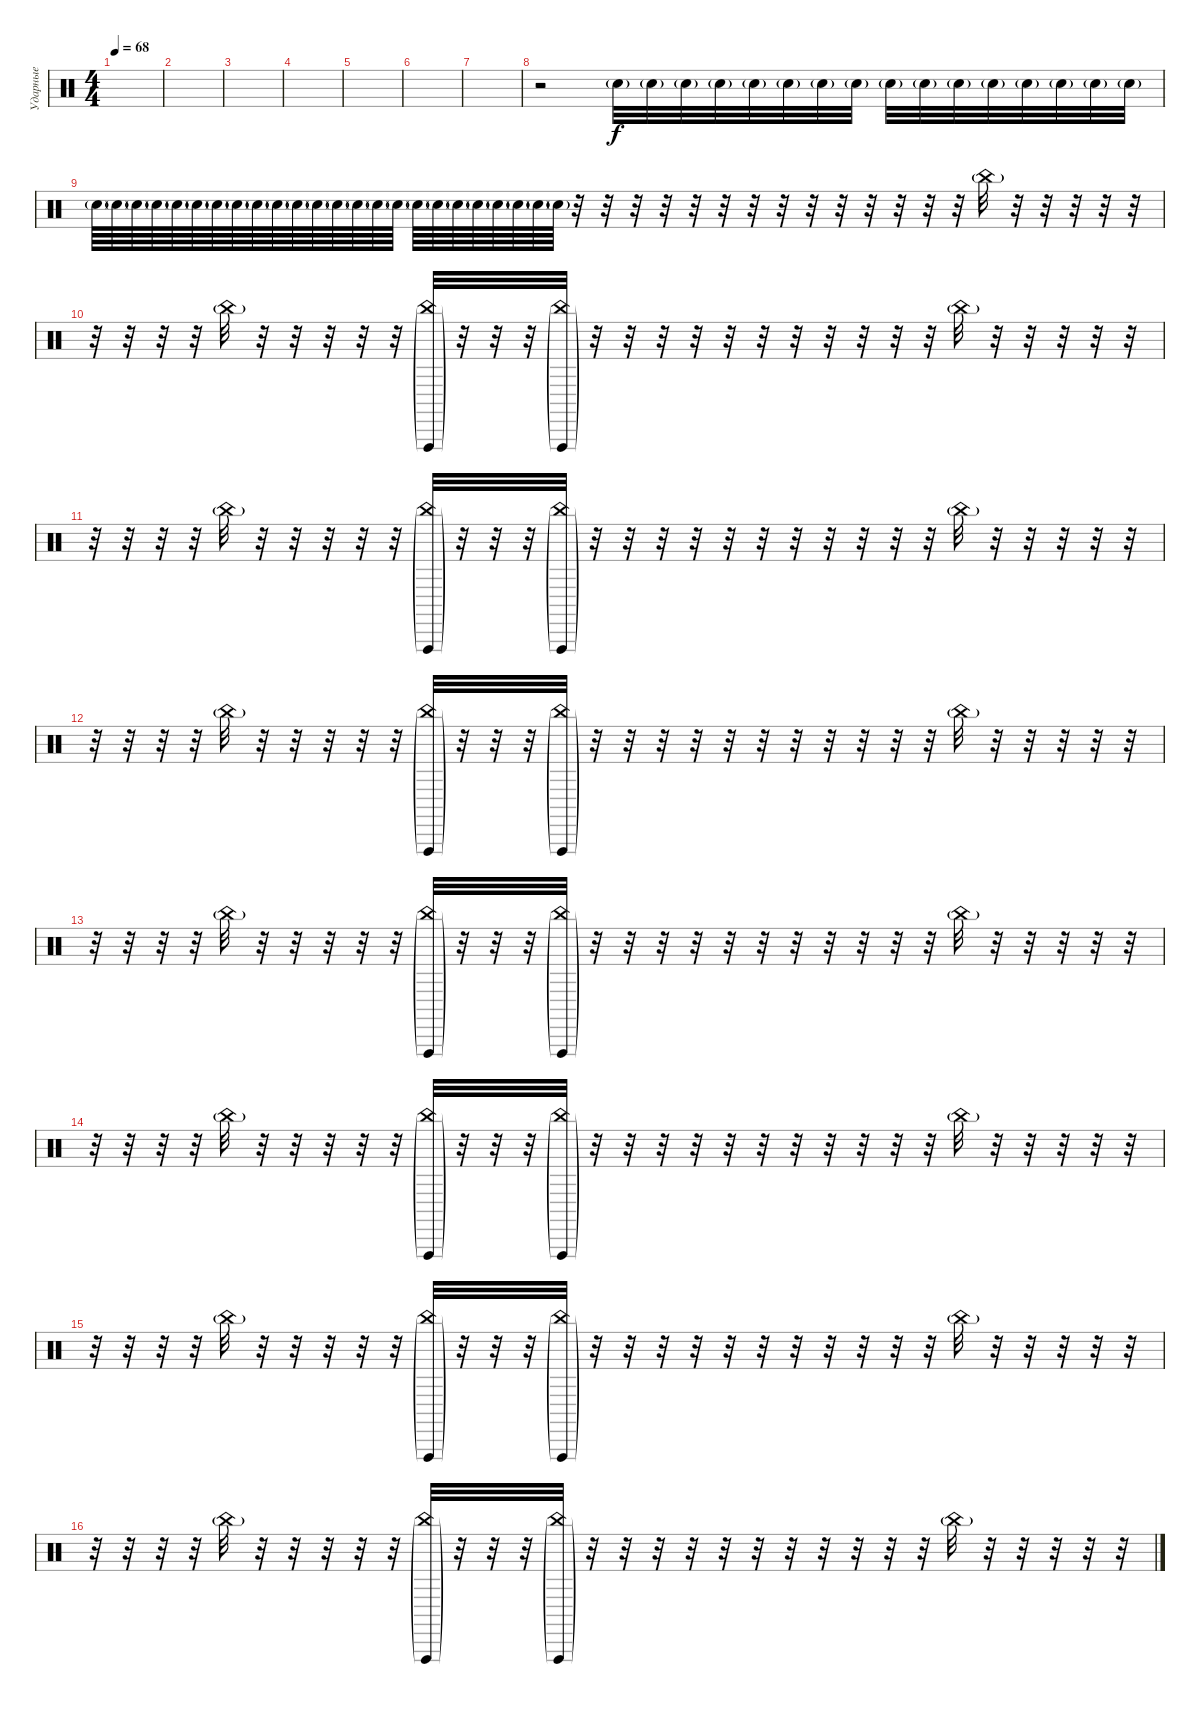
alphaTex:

\track ("Ударные" "Ударные") {instrument percussion}
\staff {score}
\articulation defaults
\ts (4 4)
\tempo 68
\clef neutral
\ks c
|
|
|
|
|
|
|
r.2 "Snare (hit) 2"{g}.32 "Snare (hit) 2"{g}.32 "Snare (hit) 2"{g}.32 "Snare (hit) 2"{g}.32 "Snare (hit) 2"{g}.32 "Snare (hit) 2"{g}.32 "Snare (hit) 2"{g}.32 "Snare (hit) 2"{g}.32 "Snare (hit) 2"{g}.32 "Snare (hit) 2"{g}.32 "Snare (hit) 2"{g}.32 "Snare (hit) 2"{g}.32 "Snare (hit) 2"{g}.32 "Snare (hit) 2"{g}.32 "Snare (hit) 2"{g}.32 "Snare (hit) 2"{g}.32 |
"Snare (hit) 2"{g}.64 "Snare (hit) 2"{g}.64 "Snare (hit) 2"{g}.64 "Snare (hit) 2"{g}.64 "Snare (hit) 2"{g}.64 "Snare (hit) 2"{g}.64 "Snare (hit) 2"{g}.64 "Snare (hit) 2"{g}.64 "Snare (hit) 2"{g}.64 "Snare (hit) 2"{g}.64 "Snare (hit) 2"{g}.64 "Snare (hit) 2"{g}.64 "Snare (hit) 2"{g}.64 "Snare (hit) 2"{g}.64 "Snare (hit) 2"{g}.64 "Snare (hit) 2"{g}.64 "Snare (hit) 2"{g}.64 "Snare (hit) 2"{g}.64 "Snare (hit) 2"{g}.64 "Snare (hit) 2"{g}.64 "Snare (hit) 2"{g}.64 "Snare (hit) 2"{g}.64 "Snare (hit) 2"{g}.64 "Snare (hit) 2"{g}.64 r.32 r.32 r.32 r.32 r.32 r.32 r.32 r.32 r.32 r.32 r.32 r.32 r.32 r.32 "China (hit)"{g}.32 r.32 r.32 r.32 r.32 r.32 |
r.32 r.32 r.32 r.32 "China (hit)"{g}.32 r.32 r.32 r.32 r.32 r.32 ("China (hit)"{g} "Vibraslap (hit)"{g}).32 r.32 r.32 r.32 ("China (hit)"{g} "Vibraslap (hit)"{g}).32 r.32 r.32 r.32 r.32 r.32 r.32 r.32 r.32 r.32 r.32 r.32 "China (hit)"{g}.32 r.32 r.32 r.32 r.32 r.32 |
r.32 r.32 r.32 r.32 "China (hit)"{g}.32 r.32 r.32 r.32 r.32 r.32 ("China (hit)"{g} "Vibraslap (hit)"{g}).32 r.32 r.32 r.32 ("China (hit)"{g} "Vibraslap (hit)"{g}).32 r.32 r.32 r.32 r.32 r.32 r.32 r.32 r.32 r.32 r.32 r.32 "China (hit)"{g}.32 r.32 r.32 r.32 r.32 r.32 |
r.32 r.32 r.32 r.32 "China (hit)"{g}.32 r.32 r.32 r.32 r.32 r.32 ("China (hit)"{g} "Vibraslap (hit)"{g}).32 r.32 r.32 r.32 ("China (hit)"{g} "Vibraslap (hit)"{g}).32 r.32 r.32 r.32 r.32 r.32 r.32 r.32 r.32 r.32 r.32 r.32 "China (hit)"{g}.32 r.32 r.32 r.32 r.32 r.32 |
r.32 r.32 r.32 r.32 "China (hit)"{g}.32 r.32 r.32 r.32 r.32 r.32 ("China (hit)"{g} "Vibraslap (hit)"{g}).32 r.32 r.32 r.32 ("China (hit)"{g} "Vibraslap (hit)"{g}).32 r.32 r.32 r.32 r.32 r.32 r.32 r.32 r.32 r.32 r.32 r.32 "China (hit)"{g}.32 r.32 r.32 r.32 r.32 r.32 |
r.32 r.32 r.32 r.32 "China (hit)"{g}.32 r.32 r.32 r.32 r.32 r.32 ("China (hit)"{g} "Vibraslap (hit)"{g}).32 r.32 r.32 r.32 ("China (hit)"{g} "Vibraslap (hit)"{g}).32 r.32 r.32 r.32 r.32 r.32 r.32 r.32 r.32 r.32 r.32 r.32 "China (hit)"{g}.32 r.32 r.32 r.32 r.32 r.32 |
r.32 r.32 r.32 r.32 "China (hit)"{g}.32 r.32 r.32 r.32 r.32 r.32 ("China (hit)"{g} "Vibraslap (hit)"{g}).32 r.32 r.32 r.32 ("China (hit)"{g} "Vibraslap (hit)"{g}).32 r.32 r.32 r.32 r.32 r.32 r.32 r.32 r.32 r.32 r.32 r.32 "China (hit)"{g}.32 r.32 r.32 r.32 r.32 r.32 |
r.32 r.32 r.32 r.32 "China (hit)"{g}.32 r.32 r.32 r.32 r.32 r.32 ("China (hit)"{g} "Vibraslap (hit)"{g}).32 r.32 r.32 r.32 ("China (hit)"{g} "Vibraslap (hit)"{g}).32 r.32 r.32 r.32 r.32 r.32 r.32 r.32 r.32 r.32 r.32 r.32 "China (hit)"{g}.32 r.32 r.32 r.32 r.32 r.32
